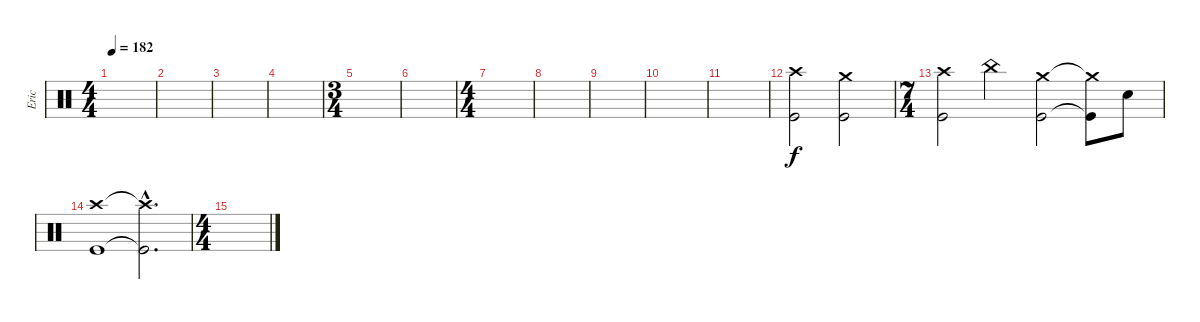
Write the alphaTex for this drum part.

\track ("Eric" "Eric") {instrument percussion}
\staff {score}
\articulation defaults
\ts (4 4)
\tempo 182
\clef neutral
\ks c
|
|
|
|
\ts (3 4)
|
|
\ts (4 4)
|
|
|
|
|
("Crash high (hit)" "Kick (hit)").2 ("Crash medium (hit)" "Kick (hit)").2 |
\ts (7 4)
("Crash high (hit)" "Kick (hit)").2 "China (hit)".2 ("Crash medium (hit)" "Kick (hit)").2 ("Crash medium (hit)"{t} "Kick (hit)"{t}).8 "Snare (hit) 2".8 |
("Crash high (hit)" "Kick (hit)").1 ("Crash high (hit)"{hac t} "Kick (hit)"{hac t}).2{d} |
\ts (4 4)
